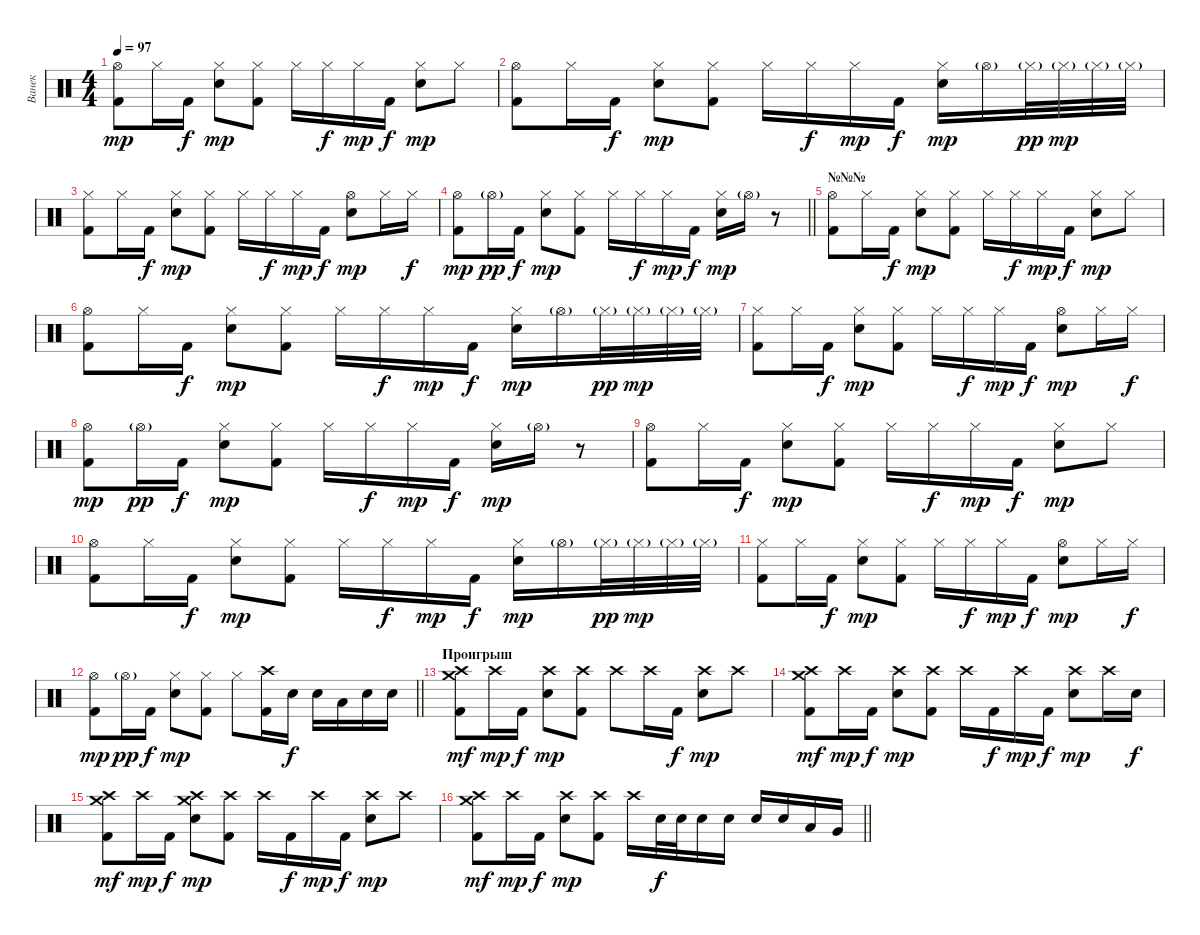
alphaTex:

\track ("Ванек" "Ванек") {instrument percussion}
\staff {score}
\articulation defaults
\ts (4 4)
\tempo 97
\clef neutral
\ks c
("Hi-Hat (open)" "Kick (hit) 2").8{dy mp} "Hi-Hat (closed)".16 "Kick (hit) 2".16{dy f} ("Hi-Hat (closed)" "Snare (hit) 2").8{dy mp} ("Hi-Hat (closed)" "Kick (hit) 2").8 "Hi-Hat (closed)".16 "Hi-Hat (closed)".16{dy f} "Hi-Hat (closed)".16{dy mp} "Kick (hit) 2".16{dy f} ("Hi-Hat (closed)" "Snare (hit) 2").8{dy mp} "Hi-Hat (closed)".8 |
("Hi-Hat (open)" "Kick (hit) 2").8 "Hi-Hat (closed)".16 "Kick (hit) 2".16{dy f} ("Hi-Hat (closed)" "Snare (hit) 2").8{dy mp} ("Hi-Hat (closed)" "Kick (hit) 2").8 "Hi-Hat (closed)".16 "Hi-Hat (closed)".16{dy f} "Hi-Hat (closed)".16{dy mp} "Kick (hit) 2".16{dy f} ("Hi-Hat (closed)" "Snare (hit) 2").16{dy mp} "Hi-Hat (open)"{g}.16 "Hi-Hat (closed)"{g}.32{dy pp} "Hi-Hat (closed)"{g}.32{dy mp} "Hi-Hat (closed)"{g}.32 "Hi-Hat (closed)"{g}.32 |
("Hi-Hat (closed)" "Kick (hit) 2").8 "Hi-Hat (closed)".16 "Kick (hit) 2".16{dy f} ("Hi-Hat (closed)" "Snare (hit) 2").8{dy mp} ("Hi-Hat (closed)" "Kick (hit) 2").8 "Hi-Hat (closed)".16 "Hi-Hat (closed)".16{dy f} "Hi-Hat (closed)".16{dy mp} "Kick (hit) 2".16{dy f} ("Hi-Hat (open)" "Snare (hit) 2").8{dy mp} "Hi-Hat (closed)".16 "Hi-Hat (closed)".16{dy f} |
\barLineRight lightlight
("Hi-Hat (open)" "Kick (hit) 2").8{dy mp} "Hi-Hat (open)"{g}.16{dy pp} "Kick (hit) 2".16{dy f} ("Hi-Hat (closed)" "Snare (hit) 2").8{dy mp} ("Hi-Hat (closed)" "Kick (hit) 2").8 "Hi-Hat (closed)".16 "Hi-Hat (closed)".16{dy f} "Hi-Hat (closed)".16{dy mp} "Kick (hit) 2".16{dy f} ("Hi-Hat (closed)" "Snare (hit) 2").16{dy mp} "Hi-Hat (open)"{g}.16 r.8 |
\section ("" "№№№")
("Hi-Hat (open)" "Kick (hit) 2").8 "Hi-Hat (closed)".16 "Kick (hit) 2".16{dy f} ("Hi-Hat (closed)" "Snare (hit) 2").8{dy mp} ("Hi-Hat (closed)" "Kick (hit) 2").8 "Hi-Hat (closed)".16 "Hi-Hat (closed)".16{dy f} "Hi-Hat (closed)".16{dy mp} "Kick (hit) 2".16{dy f} ("Hi-Hat (closed)" "Snare (hit) 2").8{dy mp} "Hi-Hat (closed)".8 |
("Hi-Hat (open)" "Kick (hit) 2").8 "Hi-Hat (closed)".16 "Kick (hit) 2".16{dy f} ("Hi-Hat (closed)" "Snare (hit) 2").8{dy mp} ("Hi-Hat (closed)" "Kick (hit) 2").8 "Hi-Hat (closed)".16 "Hi-Hat (closed)".16{dy f} "Hi-Hat (closed)".16{dy mp} "Kick (hit) 2".16{dy f} ("Hi-Hat (closed)" "Snare (hit) 2").16{dy mp} "Hi-Hat (open)"{g}.16 "Hi-Hat (closed)"{g}.32{dy pp} "Hi-Hat (closed)"{g}.32{dy mp} "Hi-Hat (closed)"{g}.32 "Hi-Hat (closed)"{g}.32 |
("Hi-Hat (closed)" "Kick (hit) 2").8 "Hi-Hat (closed)".16 "Kick (hit) 2".16{dy f} ("Hi-Hat (closed)" "Snare (hit) 2").8{dy mp} ("Hi-Hat (closed)" "Kick (hit) 2").8 "Hi-Hat (closed)".16 "Hi-Hat (closed)".16{dy f} "Hi-Hat (closed)".16{dy mp} "Kick (hit) 2".16{dy f} ("Hi-Hat (open)" "Snare (hit) 2").8{dy mp} "Hi-Hat (closed)".16 "Hi-Hat (closed)".16{dy f} |
("Hi-Hat (open)" "Kick (hit) 2").8{dy mp} "Hi-Hat (open)"{g}.16{dy pp} "Kick (hit) 2".16{dy f} ("Hi-Hat (closed)" "Snare (hit) 2").8{dy mp} ("Hi-Hat (closed)" "Kick (hit) 2").8 "Hi-Hat (closed)".16 "Hi-Hat (closed)".16{dy f} "Hi-Hat (closed)".16{dy mp} "Kick (hit) 2".16{dy f} ("Hi-Hat (closed)" "Snare (hit) 2").16{dy mp} "Hi-Hat (open)"{g}.16 r.8 |
("Hi-Hat (open)" "Kick (hit) 2").8 "Hi-Hat (closed)".16 "Kick (hit) 2".16{dy f} ("Hi-Hat (closed)" "Snare (hit) 2").8{dy mp} ("Hi-Hat (closed)" "Kick (hit) 2").8 "Hi-Hat (closed)".16 "Hi-Hat (closed)".16{dy f} "Hi-Hat (closed)".16{dy mp} "Kick (hit) 2".16{dy f} ("Hi-Hat (closed)" "Snare (hit) 2").8{dy mp} "Hi-Hat (closed)".8 |
("Hi-Hat (open)" "Kick (hit) 2").8 "Hi-Hat (closed)".16 "Kick (hit) 2".16{dy f} ("Hi-Hat (closed)" "Snare (hit) 2").8{dy mp} ("Hi-Hat (closed)" "Kick (hit) 2").8 "Hi-Hat (closed)".16 "Hi-Hat (closed)".16{dy f} "Hi-Hat (closed)".16{dy mp} "Kick (hit) 2".16{dy f} ("Hi-Hat (closed)" "Snare (hit) 2").16{dy mp} "Hi-Hat (open)"{g}.16 "Hi-Hat (closed)"{g}.32{dy pp} "Hi-Hat (closed)"{g}.32{dy mp} "Hi-Hat (closed)"{g}.32 "Hi-Hat (closed)"{g}.32 |
("Hi-Hat (closed)" "Kick (hit) 2").8 "Hi-Hat (closed)".16 "Kick (hit) 2".16{dy f} ("Hi-Hat (closed)" "Snare (hit) 2").8{dy mp} ("Hi-Hat (closed)" "Kick (hit) 2").8 "Hi-Hat (closed)".16 "Hi-Hat (closed)".16{dy f} "Hi-Hat (closed)".16{dy mp} "Kick (hit) 2".16{dy f} ("Hi-Hat (open)" "Snare (hit) 2").8{dy mp} "Hi-Hat (closed)".16 "Hi-Hat (closed)".16{dy f} |
\barLineRight lightlight
("Hi-Hat (open)" "Kick (hit) 2").8{dy mp} "Hi-Hat (open)"{g}.16{dy pp} "Kick (hit) 2".16{dy f} ("Hi-Hat (closed)" "Snare (hit) 2").8{dy mp} ("Hi-Hat (closed)" "Kick (hit) 2").8 "Hi-Hat (closed)".8 ("Crash high (hit)" "Kick (hit) 2").16 "Snare (hit) 2".16{dy f} "Snare (hit) 2".16 "Low Floor Tom (hit)".16 "Snare (hit) 2".16 "Snare (hit) 2".16 |
\section ("" "Проигрыш")
("Crash high (hit)" "Crash medium (hit)" "Kick (hit) 2").8{dy mf} "Crash high (hit)".16{dy mp} "Kick (hit) 2".16{dy f} ("Crash high (hit)" "Snare (hit) 2").8{dy mp} ("Crash high (hit)" "Kick (hit) 2").8 "Crash high (hit)".8 "Crash high (hit)".16 "Kick (hit) 2".16{dy f} ("Crash high (hit)" "Snare (hit) 2").8{dy mp} "Crash high (hit)".8 |
("Crash high (hit)" "Crash medium (hit)" "Kick (hit) 2").8{dy mf} "Crash high (hit)".16{dy mp} "Kick (hit) 2".16{dy f} ("Crash high (hit)" "Snare (hit) 2").8{dy mp} ("Crash high (hit)" "Kick (hit) 2").8 "Crash high (hit)".16 "Kick (hit) 2".16{dy f} "Crash high (hit)".16{dy mp} "Kick (hit) 2".16{dy f} ("Crash high (hit)" "Snare (hit) 2").8{dy mp} "Crash high (hit)".16 "Snare (hit) 2".16{dy f} |
("Crash high (hit)" "Crash medium (hit)" "Kick (hit) 2").8{dy mf} "Crash high (hit)".16{dy mp} "Kick (hit) 2".16{dy f} ("Crash high (hit)" "Crash medium (hit)" "Snare (hit) 2").8{dy mp} ("Crash high (hit)" "Kick (hit) 2").8 "Crash high (hit)".16 "Kick (hit) 2".16{dy f} "Crash high (hit)".16{dy mp} "Kick (hit) 2".16{dy f} ("Crash high (hit)" "Snare (hit) 2").8{dy mp} "Crash high (hit)".8 |
\barLineRight lightlight
("Crash high (hit)" "Crash medium (hit)" "Kick (hit) 2").8{dy mf} "Crash high (hit)".16{dy mp} "Kick (hit) 2".16{dy f} ("Crash high (hit)" "Snare (hit) 2").8{dy mp} ("Crash high (hit)" "Kick (hit) 2").8 "Crash high (hit)".16 "Snare (hit) 2".32{dy f} "Snare (hit) 2".32 "Snare (hit) 2".16 "Snare (hit) 2".16 "Snare (hit) 2".16 "Snare (hit) 2".16 "Low Floor Tom (hit)".16 "Very Low Tom (hit)".16
